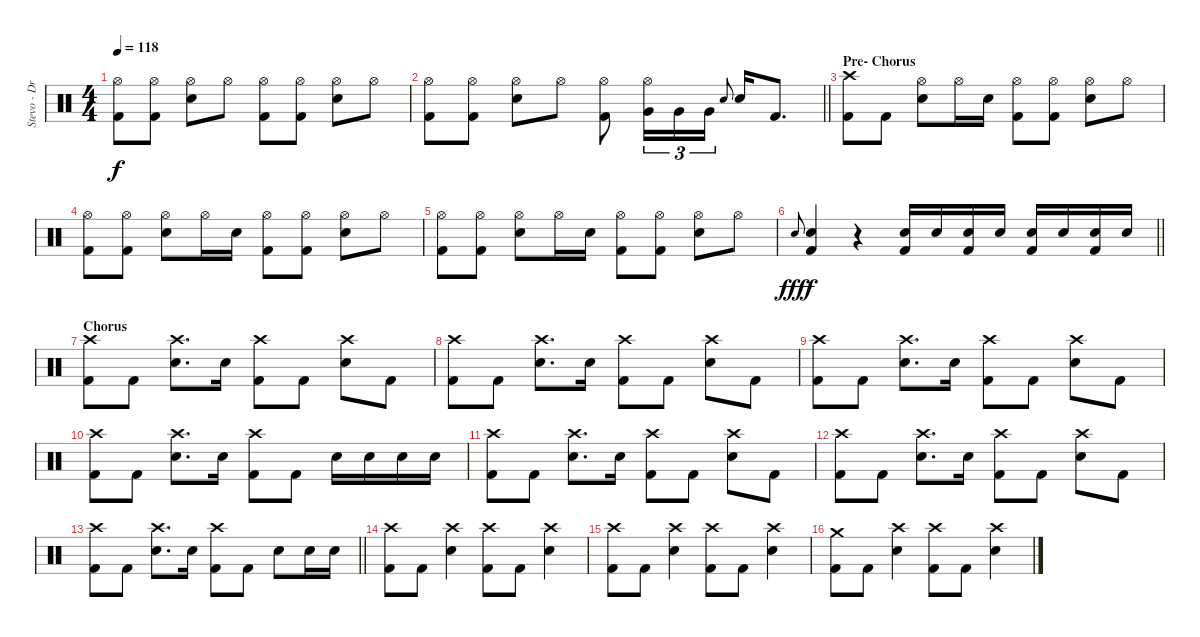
\track ("Stevo - Drums" "Stevo - Dr") {instrument percussion}
\staff {score}
\articulation defaults
\ts (4 4)
\tempo 118
\clef neutral
\ks c
("Hi-Hat (open)" "Kick (hit) 2").8{dy f} ("Hi-Hat (open)" "Kick (hit) 2").8 ("Hi-Hat (open)" "Snare (hit) 2").8 "Hi-Hat (open)".8 ("Hi-Hat (open)" "Kick (hit) 2").8 ("Hi-Hat (open)" "Kick (hit) 2").8 ("Hi-Hat (open)" "Snare (hit) 2").8 "Hi-Hat (open)".8 |
\barLineRight lightlight
("Hi-Hat (open)" "Kick (hit) 2").8 ("Hi-Hat (open)" "Kick (hit) 2").8 ("Hi-Hat (open)" "Snare (hit) 2").8 "Hi-Hat (open)".8 ("Hi-Hat (open)" "Kick (hit) 2").8 ("Hi-Hat (open)" "Very Low Tom (hit)").16{tu (3 2)} "Very Low Tom (hit)".16{tu (3 2)} "Very Low Tom (hit)".16{tu (3 2)} "Snare (hit) 2".8{gr onbeat} "Snare (hit) 2".16 "Kick (hit) 2".8{d} |
\section ("" "Pre- Chorus")
("Crash high (hit)" "Kick (hit) 2").8 "Kick (hit) 2".8 ("Hi-Hat (open)" "Snare (hit) 2").8 "Hi-Hat (open)".16 "Snare (hit) 2".16 ("Hi-Hat (open)" "Kick (hit) 2").8 ("Hi-Hat (open)" "Kick (hit) 2").8 ("Hi-Hat (open)" "Snare (hit) 2").8 "Hi-Hat (open)".8 |
("Hi-Hat (open)" "Kick (hit) 2").8 ("Hi-Hat (open)" "Kick (hit) 2").8 ("Hi-Hat (open)" "Snare (hit) 2").8 "Hi-Hat (open)".16 "Snare (hit) 2".16 ("Hi-Hat (open)" "Kick (hit) 2").8 ("Hi-Hat (open)" "Kick (hit) 2").8 ("Hi-Hat (open)" "Snare (hit) 2").8 "Hi-Hat (open)".8 |
("Hi-Hat (open)" "Kick (hit) 2").8 ("Hi-Hat (open)" "Kick (hit) 2").8 ("Hi-Hat (open)" "Snare (hit) 2").8 "Hi-Hat (open)".16 "Snare (hit) 2".16 ("Hi-Hat (open)" "Kick (hit) 2").8 ("Hi-Hat (open)" "Kick (hit) 2").8 ("Hi-Hat (open)" "Snare (hit) 2").8 "Hi-Hat (open)".8 |
\barLineRight lightlight "Snare (hit) 2".8{gr onbeat dy fff}
("Snare (hit) 2" "Kick (hit) 2").4{dy f} r.4 ("Snare (hit) 2" "Kick (hit) 2").16 "Snare (hit) 2".16 ("Snare (hit) 2" "Kick (hit) 2").16 "Snare (hit) 2".16 ("Snare (hit) 2" "Kick (hit) 2").16 "Snare (hit) 2".16 ("Snare (hit) 2" "Kick (hit) 2").16 "Snare (hit) 2".16 |
\section ("" "Chorus")
("Crash high (hit)" "Kick (hit) 2").8 "Kick (hit) 2".8 ("Crash high (hit)" "Snare (hit) 2").8{d} "Snare (hit) 2".16 ("Crash high (hit)" "Kick (hit) 2").8 "Kick (hit) 2".8 ("Crash high (hit)" "Snare (hit) 2").8 "Kick (hit) 2".8 |
("Crash high (hit)" "Kick (hit) 2").8 "Kick (hit) 2".8 ("Crash high (hit)" "Snare (hit) 2").8{d} "Snare (hit) 2".16 ("Crash high (hit)" "Kick (hit) 2").8 "Kick (hit) 2".8 ("Crash high (hit)" "Snare (hit) 2").8 "Kick (hit) 2".8 |
("Crash high (hit)" "Kick (hit) 2").8 "Kick (hit) 2".8 ("Crash high (hit)" "Snare (hit) 2").8{d} "Snare (hit) 2".16 ("Crash high (hit)" "Kick (hit) 2").8 "Kick (hit) 2".8 ("Crash high (hit)" "Snare (hit) 2").8 "Kick (hit) 2".8 |
("Crash high (hit)" "Kick (hit) 2").8 "Kick (hit) 2".8 ("Crash high (hit)" "Snare (hit) 2").8{d} "Snare (hit) 2".16 ("Crash high (hit)" "Kick (hit) 2").8 "Kick (hit) 2".8 "Snare (hit) 2".16 "Snare (hit) 2".16 "Snare (hit) 2".16 "Snare (hit) 2".16 |
("Crash high (hit)" "Kick (hit) 2").8 "Kick (hit) 2".8 ("Crash high (hit)" "Snare (hit) 2").8{d} "Snare (hit) 2".16 ("Crash high (hit)" "Kick (hit) 2").8 "Kick (hit) 2".8 ("Crash high (hit)" "Snare (hit) 2").8 "Kick (hit) 2".8 |
("Crash high (hit)" "Kick (hit) 2").8 "Kick (hit) 2".8 ("Crash high (hit)" "Snare (hit) 2").8{d} "Snare (hit) 2".16 ("Crash high (hit)" "Kick (hit) 2").8 "Kick (hit) 2".8 ("Crash high (hit)" "Snare (hit) 2").8 "Kick (hit) 2".8 |
\barLineRight lightlight
("Crash high (hit)" "Kick (hit) 2").8 "Kick (hit) 2".8 ("Crash high (hit)" "Snare (hit) 2").8{d} "Snare (hit) 2".16 ("Crash high (hit)" "Kick (hit) 2").8 "Kick (hit) 2".8 "Snare (hit) 2".8 "Snare (hit) 2".16 "Snare (hit) 2".16 |
("Crash high (hit)" "Kick (hit) 2").8 "Kick (hit) 2".8 ("Crash high (hit)" "Snare (hit) 2").4 ("Crash high (hit)" "Kick (hit) 2").8 "Kick (hit) 2".8 ("Crash high (hit)" "Snare (hit) 2").4 |
("Crash high (hit)" "Kick (hit) 2").8 "Kick (hit) 2".8 ("Crash high (hit)" "Snare (hit) 2").4 ("Crash high (hit)" "Kick (hit) 2").8 "Kick (hit) 2".8 ("Crash high (hit)" "Snare (hit) 2").4 |
("Crash medium (hit)" "Kick (hit) 2").8 "Kick (hit) 2".8 ("Crash high (hit)" "Snare (hit) 2").4 ("Crash high (hit)" "Kick (hit) 2").8 "Kick (hit) 2".8 ("Crash high (hit)" "Snare (hit) 2").4
